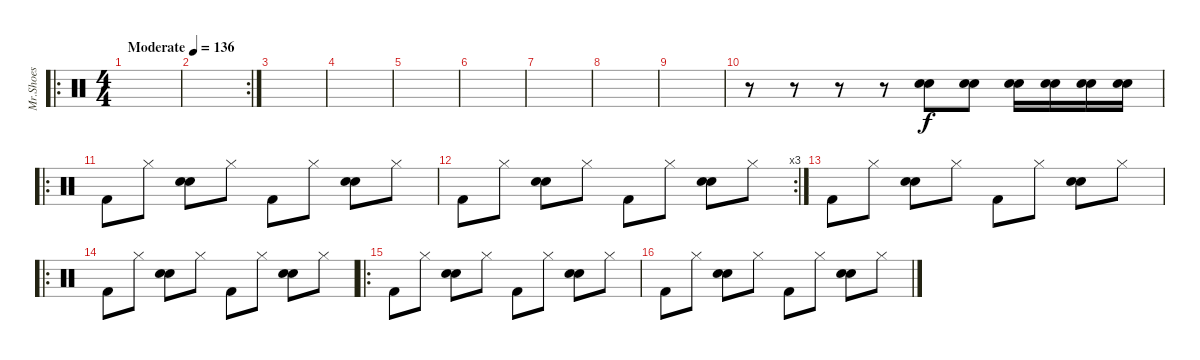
\track ("Mr.Shoes" "Mr.Shoes") {instrument percussion}
\staff {score}
\articulation defaults
\ro
\ts (4 4)
\tempo (136 "Moderate")
\clef neutral
\ks c
|
\rc 2
|
|
|
|
|
|
|
|
r.8 r.8 r.8 r.8 ("Electric Snare (hit)" "Snare (hit) 2").8 ("Electric Snare (hit)" "Snare (hit) 2").8 ("Electric Snare (hit)" "Snare (hit) 2").16 ("Electric Snare (hit)" "Snare (hit) 2").16 ("Electric Snare (hit)" "Snare (hit) 2").16 ("Electric Snare (hit)" "Snare (hit) 2").16 |
\ro "Kick (hit) 2".8 "Hi-Hat (closed)".8
("Electric Snare (hit)" "Snare (hit) 2").8 "Hi-Hat (closed)".8 "Kick (hit) 2".8 "Hi-Hat (closed)".8 ("Electric Snare (hit)" "Snare (hit) 2").8 "Hi-Hat (closed)".8 |
\rc 3 "Kick (hit) 2".8 "Hi-Hat (closed)".8
("Electric Snare (hit)" "Snare (hit) 2").8 "Hi-Hat (closed)".8 "Kick (hit) 2".8 "Hi-Hat (closed)".8 ("Electric Snare (hit)" "Snare (hit) 2").8 "Hi-Hat (closed)".8 |
"Kick (hit) 2".8 "Hi-Hat (closed)".8 ("Electric Snare (hit)" "Snare (hit) 2").8 "Hi-Hat (closed)".8 "Kick (hit) 2".8 "Hi-Hat (closed)".8 ("Electric Snare (hit)" "Snare (hit) 2").8 "Hi-Hat (closed)".8 |
\ro "Kick (hit) 2".8 "Hi-Hat (closed)".8
("Electric Snare (hit)" "Snare (hit) 2").8 "Hi-Hat (closed)".8 "Kick (hit) 2".8 "Hi-Hat (closed)".8 ("Electric Snare (hit)" "Snare (hit) 2").8 "Hi-Hat (closed)".8 |
\ro "Kick (hit) 2".8 "Hi-Hat (closed)".8
("Electric Snare (hit)" "Snare (hit) 2").8 "Hi-Hat (closed)".8 "Kick (hit) 2".8 "Hi-Hat (closed)".8 ("Electric Snare (hit)" "Snare (hit) 2").8 "Hi-Hat (closed)".8 |
"Kick (hit) 2".8 "Hi-Hat (closed)".8 ("Electric Snare (hit)" "Snare (hit) 2").8 "Hi-Hat (closed)".8 "Kick (hit) 2".8 "Hi-Hat (closed)".8 ("Electric Snare (hit)" "Snare (hit) 2").8 "Hi-Hat (closed)".8
